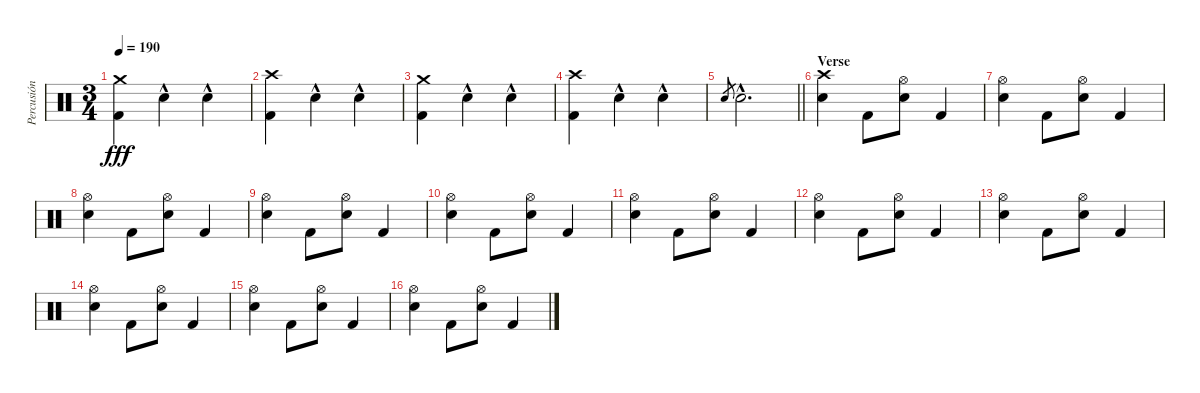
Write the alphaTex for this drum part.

\track ("Percusión" "Percusión") {instrument percussion}
\staff {score}
\articulation defaults
\ts (3 4)
\tempo 190
\clef neutral
\ks c
("Crash medium (hit)" "Kick (hit) 2").4{dy fff} "Electric Snare (hit)"{hac}.4 "Electric Snare (hit)"{hac}.4 |
("Crash high (hit)" "Kick (hit) 2").4 "Electric Snare (hit)"{hac}.4 "Electric Snare (hit)"{hac}.4 |
("Crash medium (hit)" "Kick (hit) 2").4 "Electric Snare (hit)"{hac}.4 "Electric Snare (hit)"{hac}.4 |
("Crash high (hit)" "Kick (hit) 2").4 "Electric Snare (hit)"{hac}.4 "Electric Snare (hit)"{hac}.4 |
\barLineRight lightlight "Electric Snare (hit)".8{gr} "Electric Snare (hit)"{hac}.2{d}
|
\section ("" "Verse")
("Crash high (hit)" "Electric Snare (hit)").4 "Kick (hit) 2".8 ("Hi-Hat (open)" "Electric Snare (hit)").8 "Kick (hit) 2".4 |
("Hi-Hat (open)" "Electric Snare (hit)").4 "Kick (hit) 2".8 ("Hi-Hat (open)" "Electric Snare (hit)").8 "Kick (hit) 2".4 |
("Hi-Hat (open)" "Electric Snare (hit)").4 "Kick (hit) 2".8 ("Hi-Hat (open)" "Electric Snare (hit)").8 "Kick (hit) 2".4 |
("Hi-Hat (open)" "Electric Snare (hit)").4 "Kick (hit) 2".8 ("Hi-Hat (open)" "Electric Snare (hit)").8 "Kick (hit) 2".4 |
("Hi-Hat (open)" "Electric Snare (hit)").4 "Kick (hit) 2".8 ("Hi-Hat (open)" "Electric Snare (hit)").8 "Kick (hit) 2".4 |
("Hi-Hat (open)" "Electric Snare (hit)").4 "Kick (hit) 2".8 ("Hi-Hat (open)" "Electric Snare (hit)").8 "Kick (hit) 2".4 |
("Hi-Hat (open)" "Electric Snare (hit)").4 "Kick (hit) 2".8 ("Hi-Hat (open)" "Electric Snare (hit)").8 "Kick (hit) 2".4 |
("Hi-Hat (open)" "Electric Snare (hit)").4 "Kick (hit) 2".8 ("Hi-Hat (open)" "Electric Snare (hit)").8 "Kick (hit) 2".4 |
("Hi-Hat (open)" "Electric Snare (hit)").4 "Kick (hit) 2".8 ("Hi-Hat (open)" "Electric Snare (hit)").8 "Kick (hit) 2".4 |
("Hi-Hat (open)" "Electric Snare (hit)").4 "Kick (hit) 2".8 ("Hi-Hat (open)" "Electric Snare (hit)").8 "Kick (hit) 2".4 |
("Hi-Hat (open)" "Electric Snare (hit)").4 "Kick (hit) 2".8 ("Hi-Hat (open)" "Electric Snare (hit)").8 "Kick (hit) 2".4
